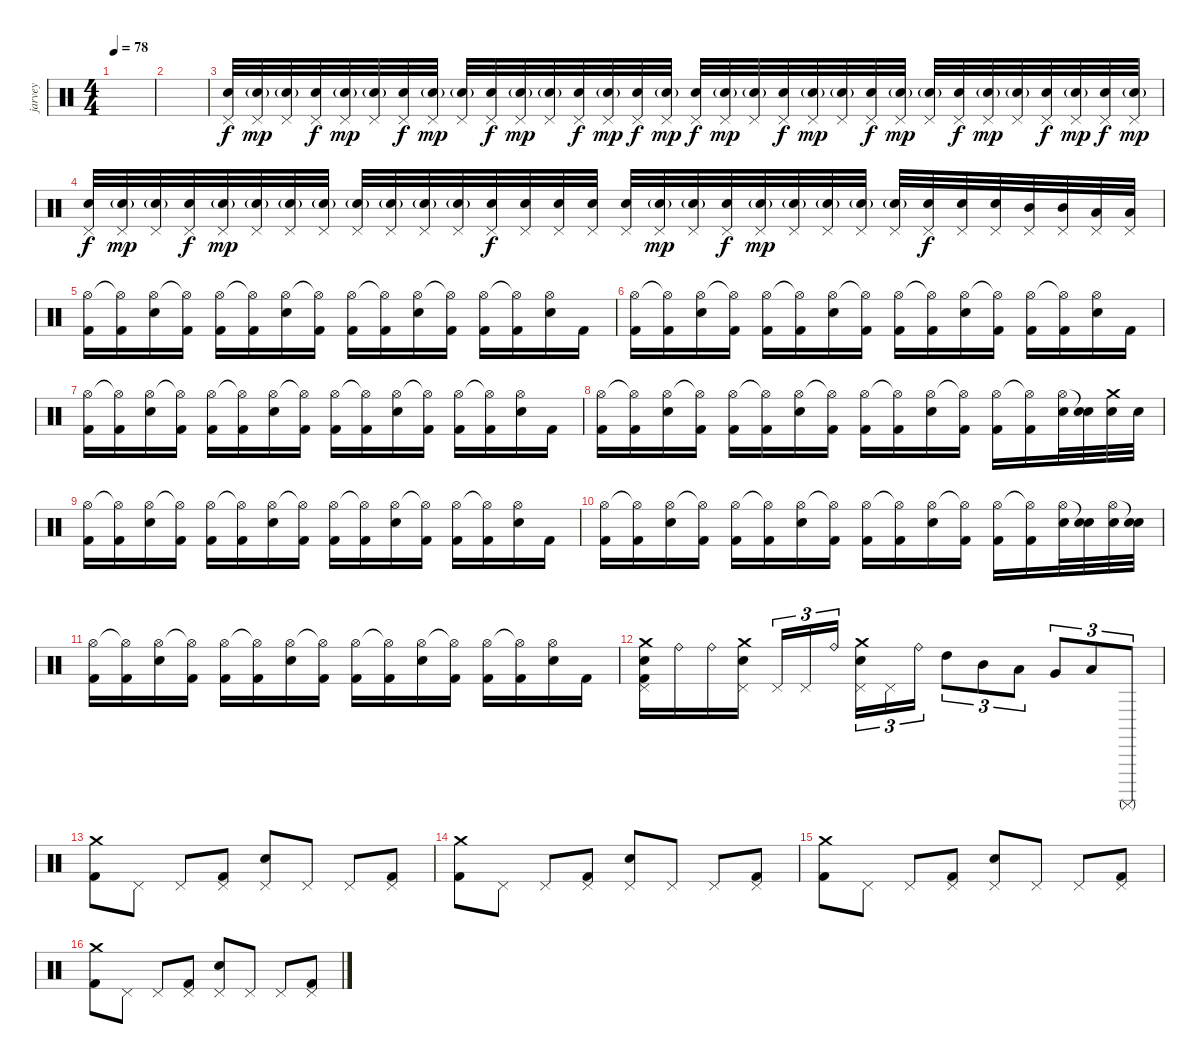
\track ("jarvey" "jarvey") {instrument percussion}
\staff {score}
\articulation defaults
\ts (4 4)
\tempo 78
\clef neutral
\ks c
|
|
("Pedal Hi-Hat (hit)" "Electric Snare (hit)").32 ("Pedal Hi-Hat (hit)" "Electric Snare (hit)"{g}).32{dy mp} ("Pedal Hi-Hat (hit)" "Electric Snare (hit)"{g}).32 ("Pedal Hi-Hat (hit)" "Electric Snare (hit)").32{dy f} ("Pedal Hi-Hat (hit)" "Electric Snare (hit)"{g}).32{dy mp} ("Pedal Hi-Hat (hit)" "Electric Snare (hit)"{g}).32 ("Pedal Hi-Hat (hit)" "Electric Snare (hit)").32{dy f} ("Pedal Hi-Hat (hit)" "Electric Snare (hit)"{g}).32{dy mp} ("Pedal Hi-Hat (hit)" "Electric Snare (hit)"{g}).32 ("Pedal Hi-Hat (hit)" "Electric Snare (hit)").32{dy f} ("Pedal Hi-Hat (hit)" "Electric Snare (hit)"{g}).32{dy mp} ("Pedal Hi-Hat (hit)" "Electric Snare (hit)"{g}).32 ("Pedal Hi-Hat (hit)" "Electric Snare (hit)").32{dy f} ("Pedal Hi-Hat (hit)" "Electric Snare (hit)"{g}).32{dy mp} ("Pedal Hi-Hat (hit)" "Electric Snare (hit)").32{dy f} ("Pedal Hi-Hat (hit)" "Electric Snare (hit)"{g}).32{dy mp} ("Pedal Hi-Hat (hit)" "Electric Snare (hit)").32{dy f} ("Pedal Hi-Hat (hit)" "Electric Snare (hit)"{g}).32{dy mp} ("Pedal Hi-Hat (hit)" "Electric Snare (hit)"{g}).32 ("Pedal Hi-Hat (hit)" "Electric Snare (hit)").32{dy f} ("Pedal Hi-Hat (hit)" "Electric Snare (hit)"{g}).32{dy mp} ("Pedal Hi-Hat (hit)" "Electric Snare (hit)"{g}).32 ("Pedal Hi-Hat (hit)" "Electric Snare (hit)").32{dy f} ("Pedal Hi-Hat (hit)" "Electric Snare (hit)"{g}).32{dy mp} ("Pedal Hi-Hat (hit)" "Electric Snare (hit)"{g}).32 ("Pedal Hi-Hat (hit)" "Electric Snare (hit)").32{dy f} ("Pedal Hi-Hat (hit)" "Electric Snare (hit)"{g}).32{dy mp} ("Pedal Hi-Hat (hit)" "Electric Snare (hit)"{g}).32 ("Pedal Hi-Hat (hit)" "Electric Snare (hit)").32{dy f} ("Pedal Hi-Hat (hit)" "Electric Snare (hit)"{g}).32{dy mp} ("Pedal Hi-Hat (hit)" "Electric Snare (hit)").32{dy f} ("Pedal Hi-Hat (hit)" "Electric Snare (hit)"{g}).32{dy mp} |
("Pedal Hi-Hat (hit)" "Electric Snare (hit)").32{dy f} ("Pedal Hi-Hat (hit)" "Electric Snare (hit)"{g}).32{dy mp} ("Pedal Hi-Hat (hit)" "Electric Snare (hit)"{g}).32 ("Pedal Hi-Hat (hit)" "Electric Snare (hit)").32{dy f} ("Pedal Hi-Hat (hit)" "Electric Snare (hit)"{g}).32{dy mp} ("Pedal Hi-Hat (hit)" "Electric Snare (hit)"{g}).32 ("Pedal Hi-Hat (hit)" "Electric Snare (hit)"{g}).32 ("Pedal Hi-Hat (hit)" "Electric Snare (hit)"{g}).32 ("Pedal Hi-Hat (hit)" "Electric Snare (hit)"{g}).32 ("Pedal Hi-Hat (hit)" "Electric Snare (hit)"{g}).32 ("Pedal Hi-Hat (hit)" "Electric Snare (hit)"{g}).32 ("Pedal Hi-Hat (hit)" "Electric Snare (hit)"{g}).32 ("Pedal Hi-Hat (hit)" "Electric Snare (hit)").32{dy f} ("Pedal Hi-Hat (hit)" "Electric Snare (hit)").32 ("Pedal Hi-Hat (hit)" "Electric Snare (hit)").32 ("Pedal Hi-Hat (hit)" "Electric Snare (hit)").32 ("Pedal Hi-Hat (hit)" "Electric Snare (hit)").32 ("Pedal Hi-Hat (hit)" "Electric Snare (hit)"{g}).32{dy mp} ("Pedal Hi-Hat (hit)" "Electric Snare (hit)"{g}).32 ("Pedal Hi-Hat (hit)" "Electric Snare (hit)").32{dy f} ("Pedal Hi-Hat (hit)" "Electric Snare (hit)"{g}).32{dy mp} ("Pedal Hi-Hat (hit)" "Electric Snare (hit)"{g}).32 ("Pedal Hi-Hat (hit)" "Electric Snare (hit)"{g}).32 ("Pedal Hi-Hat (hit)" "Electric Snare (hit)"{g}).32 ("Pedal Hi-Hat (hit)" "Electric Snare (hit)"{g}).32 ("Pedal Hi-Hat (hit)" "Electric Snare (hit)").32{dy f} ("Pedal Hi-Hat (hit)" "Electric Snare (hit)").32 ("Pedal Hi-Hat (hit)" "Electric Snare (hit)").32 ("Pedal Hi-Hat (hit)" "Mid Tom (hit)").32 ("Pedal Hi-Hat (hit)" "Mid Tom (hit)").32 ("Pedal Hi-Hat (hit)" "Low Tom (hit)").32 ("Pedal Hi-Hat (hit)" "Low Tom (hit)").32 |
("Hi-Hat (open)" "Kick (hit) 2").16 ("Hi-Hat (open)"{t} "Kick (hit) 2").16 ("Hi-Hat (open)" "Electric Snare (hit)").16 ("Hi-Hat (open)"{t} "Kick (hit) 2").16 ("Hi-Hat (open)" "Kick (hit) 2").16 ("Hi-Hat (open)"{t} "Kick (hit) 2").16 ("Hi-Hat (open)" "Electric Snare (hit)").16 ("Hi-Hat (open)"{t} "Kick (hit) 2").16 ("Hi-Hat (open)" "Kick (hit) 2").16 ("Hi-Hat (open)"{t} "Kick (hit) 2").16 ("Hi-Hat (open)" "Electric Snare (hit)").16 ("Hi-Hat (open)"{t} "Kick (hit) 2").16 ("Hi-Hat (open)" "Kick (hit) 2").16 ("Hi-Hat (open)"{t} "Kick (hit) 2").16 ("Hi-Hat (open)" "Electric Snare (hit)").16 "Kick (hit) 2".16 |
("Hi-Hat (open)" "Kick (hit) 2").16 ("Hi-Hat (open)"{t} "Kick (hit) 2").16 ("Hi-Hat (open)" "Electric Snare (hit)").16 ("Hi-Hat (open)"{t} "Kick (hit) 2").16 ("Hi-Hat (open)" "Kick (hit) 2").16 ("Hi-Hat (open)"{t} "Kick (hit) 2").16 ("Hi-Hat (open)" "Electric Snare (hit)").16 ("Hi-Hat (open)"{t} "Kick (hit) 2").16 ("Hi-Hat (open)" "Kick (hit) 2").16 ("Hi-Hat (open)"{t} "Kick (hit) 2").16 ("Hi-Hat (open)" "Electric Snare (hit)").16 ("Hi-Hat (open)"{t} "Kick (hit) 2").16 ("Hi-Hat (open)" "Kick (hit) 2").16 ("Hi-Hat (open)"{t} "Kick (hit) 2").16 ("Hi-Hat (open)" "Electric Snare (hit)").16 "Kick (hit) 2".16 |
("Hi-Hat (open)" "Kick (hit) 2").16 ("Hi-Hat (open)"{t} "Kick (hit) 2").16 ("Hi-Hat (open)" "Electric Snare (hit)").16 ("Hi-Hat (open)"{t} "Kick (hit) 2").16 ("Hi-Hat (open)" "Kick (hit) 2").16 ("Hi-Hat (open)"{t} "Kick (hit) 2").16 ("Hi-Hat (open)" "Electric Snare (hit)").16 ("Hi-Hat (open)"{t} "Kick (hit) 2").16 ("Hi-Hat (open)" "Kick (hit) 2").16 ("Hi-Hat (open)"{t} "Kick (hit) 2").16 ("Hi-Hat (open)" "Electric Snare (hit)").16 ("Hi-Hat (open)"{t} "Kick (hit) 2").16 ("Hi-Hat (open)" "Kick (hit) 2").16 ("Hi-Hat (open)"{t} "Kick (hit) 2").16 ("Hi-Hat (open)" "Electric Snare (hit)").16 "Kick (hit) 2".16 |
("Hi-Hat (open)" "Kick (hit) 2").16 ("Hi-Hat (open)"{t} "Kick (hit) 2").16 ("Hi-Hat (open)" "Electric Snare (hit)").16 ("Hi-Hat (open)"{t} "Kick (hit) 2").16 ("Hi-Hat (open)" "Kick (hit) 2").16 ("Hi-Hat (open)"{t} "Kick (hit) 2").16 ("Hi-Hat (open)" "Electric Snare (hit)").16 ("Hi-Hat (open)"{t} "Kick (hit) 2").16 ("Hi-Hat (open)" "Kick (hit) 2").16 ("Hi-Hat (open)"{t} "Kick (hit) 2").16 ("Hi-Hat (open)" "Electric Snare (hit)").16 ("Hi-Hat (open)"{t} "Kick (hit) 2").16 ("Hi-Hat (open)" "Kick (hit) 2").16 ("Hi-Hat (open)"{t} "Kick (hit) 2").16 ("Hi-Hat (open)" "Electric Snare (hit)").32 ("Snare (hit)"{t} "Electric Snare (hit)").32 ("Crash medium (hit)" "Electric Snare (hit)").32 "Electric Snare (hit)".32 |
("Hi-Hat (open)" "Kick (hit) 2").16 ("Hi-Hat (open)"{t} "Kick (hit) 2").16 ("Hi-Hat (open)" "Electric Snare (hit)").16 ("Hi-Hat (open)"{t} "Kick (hit) 2").16 ("Hi-Hat (open)" "Kick (hit) 2").16 ("Hi-Hat (open)"{t} "Kick (hit) 2").16 ("Hi-Hat (open)" "Electric Snare (hit)").16 ("Hi-Hat (open)"{t} "Kick (hit) 2").16 ("Hi-Hat (open)" "Kick (hit) 2").16 ("Hi-Hat (open)"{t} "Kick (hit) 2").16 ("Hi-Hat (open)" "Electric Snare (hit)").16 ("Hi-Hat (open)"{t} "Kick (hit) 2").16 ("Hi-Hat (open)" "Kick (hit) 2").16 ("Hi-Hat (open)"{t} "Kick (hit) 2").16 ("Hi-Hat (open)" "Electric Snare (hit)").16 "Kick (hit) 2".16 |
("Hi-Hat (open)" "Kick (hit) 2").16 ("Hi-Hat (open)"{t} "Kick (hit) 2").16 ("Hi-Hat (open)" "Electric Snare (hit)").16 ("Hi-Hat (open)"{t} "Kick (hit) 2").16 ("Hi-Hat (open)" "Kick (hit) 2").16 ("Hi-Hat (open)"{t} "Kick (hit) 2").16 ("Hi-Hat (open)" "Electric Snare (hit)").16 ("Hi-Hat (open)"{t} "Kick (hit) 2").16 ("Hi-Hat (open)" "Kick (hit) 2").16 ("Hi-Hat (open)"{t} "Kick (hit) 2").16 ("Hi-Hat (open)" "Electric Snare (hit)").16 ("Hi-Hat (open)"{t} "Kick (hit) 2").16 ("Hi-Hat (open)" "Kick (hit) 2").16 ("Hi-Hat (open)"{t} "Kick (hit) 2").16 ("Hi-Hat (open)" "Electric Snare (hit)").32 ("Snare (hit)"{t} "Electric Snare (hit)").32 ("Hi-Hat (open)" "Electric Snare (hit)").32 ("Snare (hit)"{t} "Electric Snare (hit)").32 |
("Hi-Hat (open)" "Kick (hit) 2").16 ("Hi-Hat (open)"{t} "Kick (hit) 2").16 ("Hi-Hat (open)" "Electric Snare (hit)").16 ("Hi-Hat (open)"{t} "Kick (hit) 2").16 ("Hi-Hat (open)" "Kick (hit) 2").16 ("Hi-Hat (open)"{t} "Kick (hit) 2").16 ("Hi-Hat (open)" "Electric Snare (hit)").16 ("Hi-Hat (open)"{t} "Kick (hit) 2").16 ("Hi-Hat (open)" "Kick (hit) 2").16 ("Hi-Hat (open)"{t} "Kick (hit) 2").16 ("Hi-Hat (open)" "Electric Snare (hit)").16 ("Hi-Hat (open)"{t} "Kick (hit) 2").16 ("Hi-Hat (open)" "Kick (hit) 2").16 ("Hi-Hat (open)"{t} "Kick (hit) 2").16 ("Hi-Hat (open)" "Electric Snare (hit)").16 "Kick (hit) 2".16 |
("Crash medium (hit)" "Pedal Hi-Hat (hit)" "Electric Snare (hit)" "Kick (hit) 2").16 "Ride (bell)".16 "Ride (bell)".16 ("Crash medium (hit)" "Pedal Hi-Hat (hit)" "Electric Snare (hit)").16 "Pedal Hi-Hat (hit)".16{tu (3 2)} "Pedal Hi-Hat (hit)".16{tu (3 2)} "Ride (bell)".16{tu (3 2)} ("Crash medium (hit)" "Pedal Hi-Hat (hit)" "Electric Snare (hit)").16{tu (3 2)} "Pedal Hi-Hat (hit)".16{tu (3 2)} "Ride (bell)".16{tu (3 2)} "High Tom (hit)".8{tu (3 2)} "Mid Tom (hit)".8{tu (3 2)} "Low Tom (hit)".8{tu (3 2)} "Very Low Tom (hit)".8{tu (3 2)} "Low Floor Tom (hit)".8{tu (3 2)} "Surdo (mute)".8{tu (3 2)} |
("Crash medium (hit)" "Kick (hit) 2").8 "Pedal Hi-Hat (hit)".8 "Pedal Hi-Hat (hit)".8 ("Pedal Hi-Hat (hit)" "Kick (hit) 2").8 ("Pedal Hi-Hat (hit)" "Electric Snare (hit)").8 "Pedal Hi-Hat (hit)".8 "Pedal Hi-Hat (hit)".8 ("Pedal Hi-Hat (hit)" "Kick (hit) 2").8 |
("Crash medium (hit)" "Kick (hit) 2").8 "Pedal Hi-Hat (hit)".8 "Pedal Hi-Hat (hit)".8 ("Pedal Hi-Hat (hit)" "Kick (hit) 2").8 ("Pedal Hi-Hat (hit)" "Electric Snare (hit)").8 "Pedal Hi-Hat (hit)".8 "Pedal Hi-Hat (hit)".8 ("Pedal Hi-Hat (hit)" "Kick (hit) 2").8 |
("Crash medium (hit)" "Kick (hit) 2").8 "Pedal Hi-Hat (hit)".8 "Pedal Hi-Hat (hit)".8 ("Pedal Hi-Hat (hit)" "Kick (hit) 2").8 ("Pedal Hi-Hat (hit)" "Electric Snare (hit)").8 "Pedal Hi-Hat (hit)".8 "Pedal Hi-Hat (hit)".8 ("Pedal Hi-Hat (hit)" "Kick (hit) 2").8 |
("Crash medium (hit)" "Kick (hit) 2").8 "Pedal Hi-Hat (hit)".8 "Pedal Hi-Hat (hit)".8 ("Pedal Hi-Hat (hit)" "Kick (hit) 2").8 ("Pedal Hi-Hat (hit)" "Electric Snare (hit)").8 "Pedal Hi-Hat (hit)".8 "Pedal Hi-Hat (hit)".8 ("Pedal Hi-Hat (hit)" "Kick (hit) 2").8
